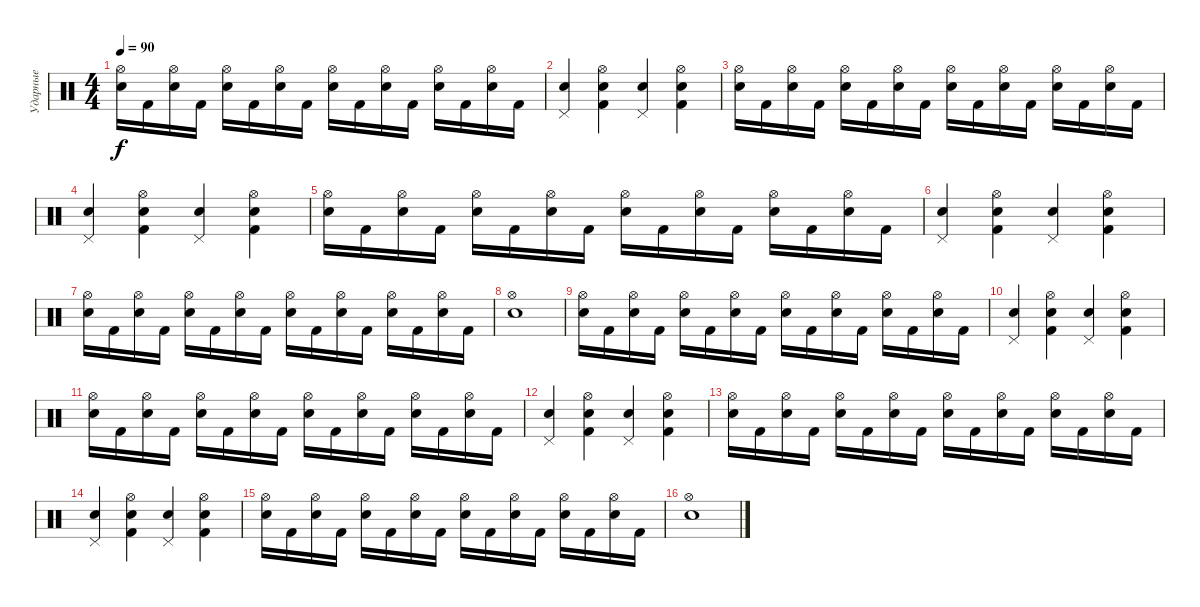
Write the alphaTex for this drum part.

\track ("Ударные" "Ударные") {instrument percussion}
\staff {score}
\articulation defaults
\ts (4 4)
\tempo 90
\clef neutral
\ks c
("Hi-Hat (open)" "Snare (hit) 2").16{dy f} "Kick (hit) 2".16 ("Hi-Hat (open)" "Snare (hit) 2").16 "Kick (hit) 2".16 ("Hi-Hat (open)" "Snare (hit) 2").16 "Kick (hit) 2".16 ("Hi-Hat (open)" "Snare (hit) 2").16 "Kick (hit) 2".16 ("Hi-Hat (open)" "Snare (hit) 2").16 "Kick (hit) 2".16 ("Hi-Hat (open)" "Snare (hit) 2").16 "Kick (hit) 2".16 ("Hi-Hat (open)" "Snare (hit) 2").16 "Kick (hit) 2".16 ("Hi-Hat (open)" "Snare (hit) 2").16 "Kick (hit) 2".16 |
("Pedal Hi-Hat (hit)" "Snare (hit) 2").4 ("Snare (hit) 2" "Hi-Hat (open)" "Kick (hit) 2").4 ("Pedal Hi-Hat (hit)" "Snare (hit) 2").4 ("Snare (hit) 2" "Hi-Hat (open)" "Kick (hit) 2").4 |
("Hi-Hat (open)" "Snare (hit) 2").16 "Kick (hit) 2".16 ("Hi-Hat (open)" "Snare (hit) 2").16 "Kick (hit) 2".16 ("Hi-Hat (open)" "Snare (hit) 2").16 "Kick (hit) 2".16 ("Hi-Hat (open)" "Snare (hit) 2").16 "Kick (hit) 2".16 ("Hi-Hat (open)" "Snare (hit) 2").16 "Kick (hit) 2".16 ("Hi-Hat (open)" "Snare (hit) 2").16 "Kick (hit) 2".16 ("Hi-Hat (open)" "Snare (hit) 2").16 "Kick (hit) 2".16 ("Hi-Hat (open)" "Snare (hit) 2").16 "Kick (hit) 2".16 |
("Pedal Hi-Hat (hit)" "Snare (hit) 2").4 ("Snare (hit) 2" "Hi-Hat (open)" "Kick (hit) 2").4 ("Pedal Hi-Hat (hit)" "Snare (hit) 2").4 ("Snare (hit) 2" "Hi-Hat (open)" "Kick (hit) 2").4 |
("Hi-Hat (open)" "Snare (hit) 2").16 "Kick (hit) 2".16 ("Hi-Hat (open)" "Snare (hit) 2").16 "Kick (hit) 2".16 ("Hi-Hat (open)" "Snare (hit) 2").16 "Kick (hit) 2".16 ("Hi-Hat (open)" "Snare (hit) 2").16 "Kick (hit) 2".16 ("Hi-Hat (open)" "Snare (hit) 2").16 "Kick (hit) 2".16 ("Hi-Hat (open)" "Snare (hit) 2").16 "Kick (hit) 2".16 ("Hi-Hat (open)" "Snare (hit) 2").16 "Kick (hit) 2".16 ("Hi-Hat (open)" "Snare (hit) 2").16 "Kick (hit) 2".16 |
("Pedal Hi-Hat (hit)" "Snare (hit) 2").4 ("Snare (hit) 2" "Hi-Hat (open)" "Kick (hit) 2").4 ("Pedal Hi-Hat (hit)" "Snare (hit) 2").4 ("Snare (hit) 2" "Hi-Hat (open)" "Kick (hit) 2").4 |
("Hi-Hat (open)" "Snare (hit) 2").16 "Kick (hit) 2".16 ("Hi-Hat (open)" "Snare (hit) 2").16 "Kick (hit) 2".16 ("Hi-Hat (open)" "Snare (hit) 2").16 "Kick (hit) 2".16 ("Hi-Hat (open)" "Snare (hit) 2").16 "Kick (hit) 2".16 ("Hi-Hat (open)" "Snare (hit) 2").16 "Kick (hit) 2".16 ("Hi-Hat (open)" "Snare (hit) 2").16 "Kick (hit) 2".16 ("Hi-Hat (open)" "Snare (hit) 2").16 "Kick (hit) 2".16 ("Hi-Hat (open)" "Snare (hit) 2").16 "Kick (hit) 2".16 |
("Hi-Hat (open)" "Snare (hit) 2").1 |
("Hi-Hat (open)" "Snare (hit) 2").16 "Kick (hit) 2".16 ("Hi-Hat (open)" "Snare (hit) 2").16 "Kick (hit) 2".16 ("Hi-Hat (open)" "Snare (hit) 2").16 "Kick (hit) 2".16 ("Hi-Hat (open)" "Snare (hit) 2").16 "Kick (hit) 2".16 ("Hi-Hat (open)" "Snare (hit) 2").16 "Kick (hit) 2".16 ("Hi-Hat (open)" "Snare (hit) 2").16 "Kick (hit) 2".16 ("Hi-Hat (open)" "Snare (hit) 2").16 "Kick (hit) 2".16 ("Hi-Hat (open)" "Snare (hit) 2").16 "Kick (hit) 2".16 |
("Pedal Hi-Hat (hit)" "Snare (hit) 2").4 ("Snare (hit) 2" "Hi-Hat (open)" "Kick (hit) 2").4 ("Pedal Hi-Hat (hit)" "Snare (hit) 2").4 ("Snare (hit) 2" "Hi-Hat (open)" "Kick (hit) 2").4 |
("Hi-Hat (open)" "Snare (hit) 2").16 "Kick (hit) 2".16 ("Hi-Hat (open)" "Snare (hit) 2").16 "Kick (hit) 2".16 ("Hi-Hat (open)" "Snare (hit) 2").16 "Kick (hit) 2".16 ("Hi-Hat (open)" "Snare (hit) 2").16 "Kick (hit) 2".16 ("Hi-Hat (open)" "Snare (hit) 2").16 "Kick (hit) 2".16 ("Hi-Hat (open)" "Snare (hit) 2").16 "Kick (hit) 2".16 ("Hi-Hat (open)" "Snare (hit) 2").16 "Kick (hit) 2".16 ("Hi-Hat (open)" "Snare (hit) 2").16 "Kick (hit) 2".16 |
("Pedal Hi-Hat (hit)" "Snare (hit) 2").4 ("Snare (hit) 2" "Hi-Hat (open)" "Kick (hit) 2").4 ("Pedal Hi-Hat (hit)" "Snare (hit) 2").4 ("Snare (hit) 2" "Hi-Hat (open)" "Kick (hit) 2").4 |
("Hi-Hat (open)" "Snare (hit) 2").16 "Kick (hit) 2".16 ("Hi-Hat (open)" "Snare (hit) 2").16 "Kick (hit) 2".16 ("Hi-Hat (open)" "Snare (hit) 2").16 "Kick (hit) 2".16 ("Hi-Hat (open)" "Snare (hit) 2").16 "Kick (hit) 2".16 ("Hi-Hat (open)" "Snare (hit) 2").16 "Kick (hit) 2".16 ("Hi-Hat (open)" "Snare (hit) 2").16 "Kick (hit) 2".16 ("Hi-Hat (open)" "Snare (hit) 2").16 "Kick (hit) 2".16 ("Hi-Hat (open)" "Snare (hit) 2").16 "Kick (hit) 2".16 |
("Pedal Hi-Hat (hit)" "Snare (hit) 2").4 ("Snare (hit) 2" "Hi-Hat (open)" "Kick (hit) 2").4 ("Pedal Hi-Hat (hit)" "Snare (hit) 2").4 ("Snare (hit) 2" "Hi-Hat (open)" "Kick (hit) 2").4 |
("Hi-Hat (open)" "Snare (hit) 2").16 "Kick (hit) 2".16 ("Hi-Hat (open)" "Snare (hit) 2").16 "Kick (hit) 2".16 ("Hi-Hat (open)" "Snare (hit) 2").16 "Kick (hit) 2".16 ("Hi-Hat (open)" "Snare (hit) 2").16 "Kick (hit) 2".16 ("Hi-Hat (open)" "Snare (hit) 2").16 "Kick (hit) 2".16 ("Hi-Hat (open)" "Snare (hit) 2").16 "Kick (hit) 2".16 ("Hi-Hat (open)" "Snare (hit) 2").16 "Kick (hit) 2".16 ("Hi-Hat (open)" "Snare (hit) 2").16 "Kick (hit) 2".16 |
("Hi-Hat (open)" "Snare (hit) 2").1
